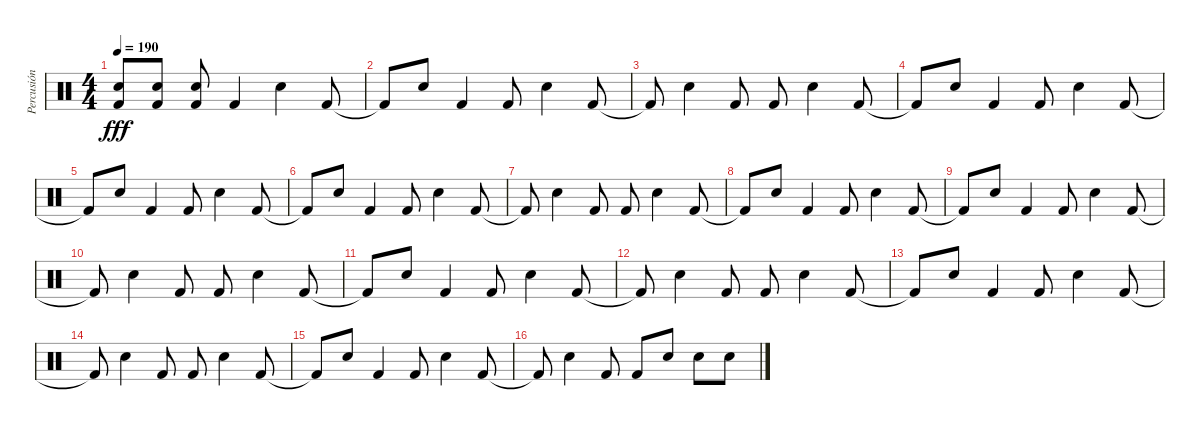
\track ("Percusión" "Percusión") {instrument percussion}
\staff {score}
\articulation defaults
\ts (4 4)
\tempo 190
\clef neutral
\ks c
("Snare (hit) 2" "Kick (hit) 2").8{dy fff} ("Snare (hit) 2" "Kick (hit) 2").8 ("Snare (hit) 2" "Kick (hit) 2").8 "Kick (hit) 2".4 "Snare (hit) 2".4 "Kick (hit) 2".8 |
"Kick (hit) 2"{t}.8 "Snare (hit) 2".8 "Kick (hit) 2".4 "Kick (hit) 2".8 "Snare (hit) 2".4 "Kick (hit) 2".8 |
"Kick (hit) 2"{t}.8 "Snare (hit) 2".4 "Kick (hit) 2".8 "Kick (hit) 2".8 "Snare (hit) 2".4 "Kick (hit) 2".8 |
"Kick (hit) 2"{t}.8 "Snare (hit) 2".8 "Kick (hit) 2".4 "Kick (hit) 2".8 "Snare (hit) 2".4 "Kick (hit) 2".8 |
"Kick (hit) 2"{t}.8 "Snare (hit) 2".8 "Kick (hit) 2".4 "Kick (hit) 2".8 "Snare (hit) 2".4 "Kick (hit) 2".8 |
"Kick (hit) 2"{t}.8 "Snare (hit) 2".8 "Kick (hit) 2".4 "Kick (hit) 2".8 "Snare (hit) 2".4 "Kick (hit) 2".8 |
"Kick (hit) 2"{t}.8 "Snare (hit) 2".4 "Kick (hit) 2".8 "Kick (hit) 2".8 "Snare (hit) 2".4 "Kick (hit) 2".8 |
"Kick (hit) 2"{t}.8 "Snare (hit) 2".8 "Kick (hit) 2".4 "Kick (hit) 2".8 "Snare (hit) 2".4 "Kick (hit) 2".8 |
"Kick (hit) 2"{t}.8 "Snare (hit) 2".8 "Kick (hit) 2".4 "Kick (hit) 2".8 "Snare (hit) 2".4 "Kick (hit) 2".8 |
"Kick (hit) 2"{t}.8 "Snare (hit) 2".4 "Kick (hit) 2".8 "Kick (hit) 2".8 "Snare (hit) 2".4 "Kick (hit) 2".8 |
"Kick (hit) 2"{t}.8 "Snare (hit) 2".8 "Kick (hit) 2".4 "Kick (hit) 2".8 "Snare (hit) 2".4 "Kick (hit) 2".8 |
"Kick (hit) 2"{t}.8 "Snare (hit) 2".4 "Kick (hit) 2".8 "Kick (hit) 2".8 "Snare (hit) 2".4 "Kick (hit) 2".8 |
"Kick (hit) 2"{t}.8 "Snare (hit) 2".8 "Kick (hit) 2".4 "Kick (hit) 2".8 "Snare (hit) 2".4 "Kick (hit) 2".8 |
"Kick (hit) 2"{t}.8 "Snare (hit) 2".4 "Kick (hit) 2".8 "Kick (hit) 2".8 "Snare (hit) 2".4 "Kick (hit) 2".8 |
"Kick (hit) 2"{t}.8 "Snare (hit) 2".8 "Kick (hit) 2".4 "Kick (hit) 2".8 "Snare (hit) 2".4 "Kick (hit) 2".8 |
"Kick (hit) 2"{t}.8 "Snare (hit) 2".4 "Kick (hit) 2".8 "Kick (hit) 2".8 "Snare (hit) 2".8 "Snare (hit) 2".8 "Snare (hit) 2".8
